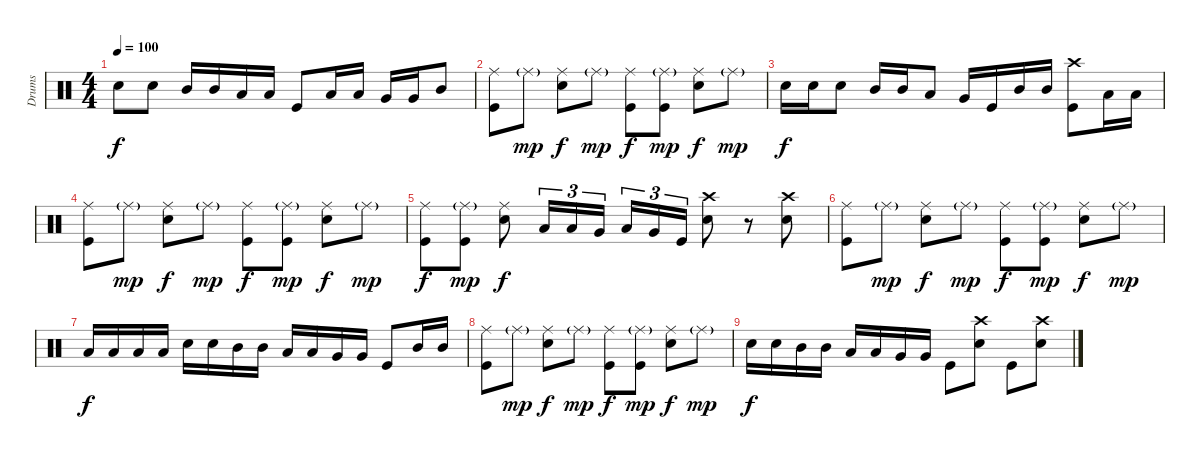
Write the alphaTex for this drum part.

\track ("Drums" "Drums") {instrument percussion}
\staff {score}
\articulation defaults
\ts (4 4)
\tempo 100
\clef neutral
\ks c "Snare (hit) 2".8{dy f} "Snare (hit) 2".8 "Mid Tom (hit)".16 "Mid Tom (hit)".16 "Low Tom (hit)".16 "Low Tom (hit)".16 "Kick (hit)".8 "Low Tom (hit)".16 "Low Tom (hit)".16 "Very Low Tom (hit)".16 "Very Low Tom (hit)".16 "Mid Tom (hit)".8
|
("Ride (middle)" "Kick (hit)").8 "Ride (middle)"{g}.8{dy mp} ("Ride (middle)" "Snare (hit) 2").8{dy f} "Ride (middle)"{g}.8{dy mp} ("Ride (middle)" "Kick (hit)").8{dy f} ("Ride (middle)"{g} "Kick (hit)").8{dy mp} ("Ride (middle)" "Snare (hit) 2").8{dy f} "Ride (middle)"{g}.8{dy mp} |
"Snare (hit) 2".16{dy f} "Snare (hit) 2".16 "Snare (hit) 2".8 "Mid Tom (hit)".16 "Mid Tom (hit)".16 "Low Tom (hit)".8 "Very Low Tom (hit)".16 "Kick (hit)".16 "Mid Tom (hit)".16 "Mid Tom (hit)".16 ("Crash high (hit)" "Kick (hit)").8 "Low Tom (hit)".16 "Low Tom (hit)".16 |
("Ride (middle)" "Kick (hit)").8 "Ride (middle)"{g}.8{dy mp} ("Ride (middle)" "Snare (hit) 2").8{dy f} "Ride (middle)"{g}.8{dy mp} ("Ride (middle)" "Kick (hit)").8{dy f} ("Ride (middle)"{g} "Kick (hit)").8{dy mp} ("Ride (middle)" "Snare (hit) 2").8{dy f} "Ride (middle)"{g}.8{dy mp} |
("Ride (middle)" "Kick (hit)").8{dy f} ("Ride (middle)"{g} "Kick (hit)").8{dy mp} ("Ride (middle)" "Snare (hit) 2").8{dy f} "Low Tom (hit)".16{tu (3 2)} "Low Tom (hit)".16{tu (3 2)} "Very Low Tom (hit)".16{tu (3 2)} "Low Tom (hit)".16{tu (3 2)} "Very Low Tom (hit)".16{tu (3 2)} "Kick (hit)".16{tu (3 2)} ("Crash high (hit)" "Snare (hit) 2").8 r.8 ("Crash high (hit)" "Snare (hit) 2").8 |
("Ride (middle)" "Kick (hit)").8 "Ride (middle)"{g}.8{dy mp} ("Ride (middle)" "Snare (hit) 2").8{dy f} "Ride (middle)"{g}.8{dy mp} ("Ride (middle)" "Kick (hit)").8{dy f} ("Ride (middle)"{g} "Kick (hit)").8{dy mp} ("Ride (middle)" "Snare (hit) 2").8{dy f} "Ride (middle)"{g}.8{dy mp} |
"Low Tom (hit)".16{dy f} "Low Tom (hit)".16 "Low Tom (hit)".16 "Low Tom (hit)".16 "Snare (hit) 2".16 "Snare (hit) 2".16 "Mid Tom (hit)".16 "Mid Tom (hit)".16 "Low Tom (hit)".16 "Low Tom (hit)".16 "Very Low Tom (hit)".16 "Very Low Tom (hit)".16 "Kick (hit)".8 "Mid Tom (hit)".16 "Mid Tom (hit)".16 |
("Ride (middle)" "Kick (hit)").8 "Ride (middle)"{g}.8{dy mp} ("Ride (middle)" "Snare (hit) 2").8{dy f} "Ride (middle)"{g}.8{dy mp} ("Ride (middle)" "Kick (hit)").8{dy f} ("Ride (middle)"{g} "Kick (hit)").8{dy mp} ("Ride (middle)" "Snare (hit) 2").8{dy f} "Ride (middle)"{g}.8{dy mp} |
"Snare (hit) 2".16{dy f} "Snare (hit) 2".16 "Mid Tom (hit)".16 "Mid Tom (hit)".16 "Low Tom (hit)".16 "Low Tom (hit)".16 "Very Low Tom (hit)".16 "Very Low Tom (hit)".16 "Kick (hit)".8 ("Crash high (hit)" "Snare (hit) 2").8 "Kick (hit)".8 ("Crash high (hit)" "Snare (hit) 2").8
